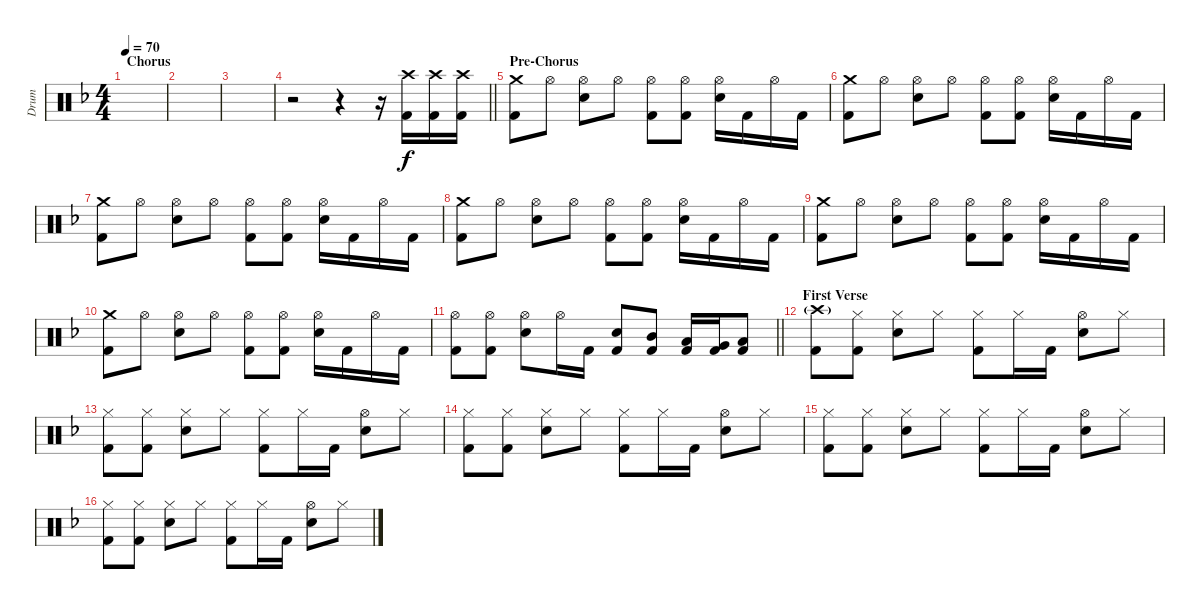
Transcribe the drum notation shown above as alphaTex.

\track ("Drum" "Drum") {instrument percussion}
\staff {score}
\articulation defaults
\ts (4 4)
\section ("" "Chorus")
\tempo 70
\clef neutral
\ks f
|
|
|
\barLineRight lightlight
r.2 r.4 r.16 ("Crash high (hit)" "Kick (hit) 2").16 ("Crash high (hit)" "Kick (hit) 2").16 ("Crash high (hit)" "Kick (hit) 2").16 |
\section ("" "Pre-Chorus")
("Crash medium (hit)" "Kick (hit) 2").8 "Hi-Hat (open)".8 ("Hi-Hat (open)" "Electric Snare (hit)").8 "Hi-Hat (open)".8 ("Hi-Hat (open)" "Kick (hit) 2").8 ("Hi-Hat (open)" "Kick (hit) 2").8 ("Hi-Hat (open)" "Electric Snare (hit)").16 "Kick (hit) 2".16 "Hi-Hat (open)".16 "Kick (hit) 2".16 |
("Crash medium (hit)" "Kick (hit) 2").8 "Hi-Hat (open)".8 ("Hi-Hat (open)" "Electric Snare (hit)").8 "Hi-Hat (open)".8 ("Hi-Hat (open)" "Kick (hit) 2").8 ("Hi-Hat (open)" "Kick (hit) 2").8 ("Hi-Hat (open)" "Electric Snare (hit)").16 "Kick (hit) 2".16 "Hi-Hat (open)".16 "Kick (hit) 2".16 |
("Crash medium (hit)" "Kick (hit) 2").8 "Hi-Hat (open)".8 ("Hi-Hat (open)" "Electric Snare (hit)").8 "Hi-Hat (open)".8 ("Hi-Hat (open)" "Kick (hit) 2").8 ("Hi-Hat (open)" "Kick (hit) 2").8 ("Hi-Hat (open)" "Electric Snare (hit)").16 "Kick (hit) 2".16 "Hi-Hat (open)".16 "Kick (hit) 2".16 |
("Crash medium (hit)" "Kick (hit) 2").8 "Hi-Hat (open)".8 ("Hi-Hat (open)" "Electric Snare (hit)").8 "Hi-Hat (open)".8 ("Hi-Hat (open)" "Kick (hit) 2").8 ("Hi-Hat (open)" "Kick (hit) 2").8 ("Hi-Hat (open)" "Electric Snare (hit)").16 "Kick (hit) 2".16 "Hi-Hat (open)".16 "Kick (hit) 2".16 |
("Crash medium (hit)" "Kick (hit) 2").8 "Hi-Hat (open)".8 ("Hi-Hat (open)" "Electric Snare (hit)").8 "Hi-Hat (open)".8 ("Hi-Hat (open)" "Kick (hit) 2").8 ("Hi-Hat (open)" "Kick (hit) 2").8 ("Hi-Hat (open)" "Electric Snare (hit)").16 "Kick (hit) 2".16 "Hi-Hat (open)".16 "Kick (hit) 2".16 |
("Crash medium (hit)" "Kick (hit) 2").8 "Hi-Hat (open)".8 ("Hi-Hat (open)" "Electric Snare (hit)").8 "Hi-Hat (open)".8 ("Hi-Hat (open)" "Kick (hit) 2").8 ("Hi-Hat (open)" "Kick (hit) 2").8 ("Hi-Hat (open)" "Electric Snare (hit)").16 "Kick (hit) 2".16 "Hi-Hat (open)".16 "Kick (hit) 2".16 |
\barLineRight lightlight
("Hi-Hat (open)" "Kick (hit) 2").8 ("Hi-Hat (open)" "Kick (hit) 2").8 ("Hi-Hat (open)" "Electric Snare (hit)").8 "Hi-Hat (open)".16 "Kick (hit) 2".16 ("Electric Snare (hit)" "Kick (hit) 2").8 ("Mid Tom (hit)" "Kick (hit) 2").8 ("Low Tom (hit)" "Kick (hit) 2").16 ("Very Low Tom (hit)" "Kick (hit) 2").16 ("Low Floor Tom (hit)" "Kick (hit) 2").8 |
\section ("" "First Verse")
("Crash high (hit)"{g} "Kick (hit) 2").8 ("Hi-Hat (closed)" "Kick (hit) 2").8 ("Hi-Hat (closed)" "Electric Snare (hit)").8 "Hi-Hat (closed)".8 ("Hi-Hat (closed)" "Kick (hit) 2").8 "Hi-Hat (closed)".16 "Kick (hit) 2".16 ("Hi-Hat (open)" "Electric Snare (hit)").8 "Hi-Hat (closed)".8 |
("Hi-Hat (closed)" "Kick (hit) 2").8 ("Hi-Hat (closed)" "Kick (hit) 2").8 ("Hi-Hat (closed)" "Electric Snare (hit)").8 "Hi-Hat (closed)".8 ("Hi-Hat (closed)" "Kick (hit) 2").8 "Hi-Hat (closed)".16 "Kick (hit) 2".16 ("Hi-Hat (open)" "Electric Snare (hit)").8 "Hi-Hat (closed)".8 |
("Hi-Hat (closed)" "Kick (hit) 2").8 ("Hi-Hat (closed)" "Kick (hit) 2").8 ("Hi-Hat (closed)" "Electric Snare (hit)").8 "Hi-Hat (closed)".8 ("Hi-Hat (closed)" "Kick (hit) 2").8 "Hi-Hat (closed)".16 "Kick (hit) 2".16 ("Hi-Hat (open)" "Electric Snare (hit)").8 "Hi-Hat (closed)".8 |
("Hi-Hat (closed)" "Kick (hit) 2").8 ("Hi-Hat (closed)" "Kick (hit) 2").8 ("Hi-Hat (closed)" "Electric Snare (hit)").8 "Hi-Hat (closed)".8 ("Hi-Hat (closed)" "Kick (hit) 2").8 "Hi-Hat (closed)".16 "Kick (hit) 2".16 ("Hi-Hat (open)" "Electric Snare (hit)").8 "Hi-Hat (closed)".8 |
("Hi-Hat (closed)" "Kick (hit) 2").8 ("Hi-Hat (closed)" "Kick (hit) 2").8 ("Hi-Hat (closed)" "Electric Snare (hit)").8 "Hi-Hat (closed)".8 ("Hi-Hat (closed)" "Kick (hit) 2").8 "Hi-Hat (closed)".16 "Kick (hit) 2".16 ("Hi-Hat (open)" "Electric Snare (hit)").8 "Hi-Hat (closed)".8
